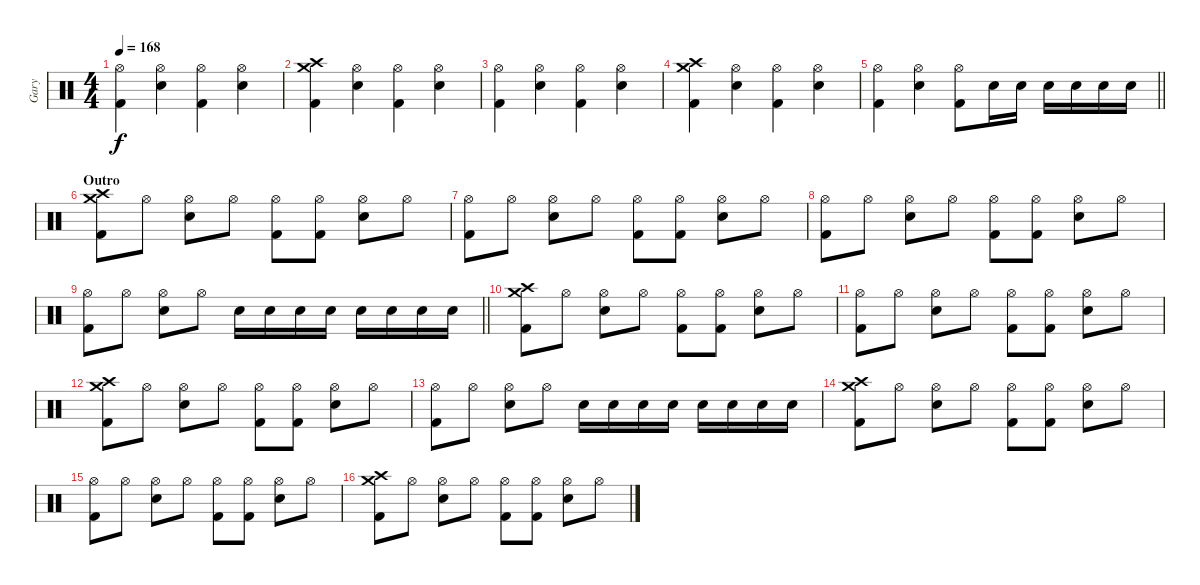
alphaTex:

\track ("Gary" "Gary") {instrument percussion}
\staff {score}
\articulation defaults
\ts (4 4)
\tempo 168
\clef neutral
\ks c
("Hi-Hat (open)" "Kick (hit) 2").4{dy f} ("Hi-Hat (open)" "Electric Snare (hit)").4 ("Hi-Hat (open)" "Kick (hit) 2").4 ("Hi-Hat (open)" "Electric Snare (hit)").4 |
("Crash medium (hit)" "Crash high (hit)" "Kick (hit) 2").4 ("Hi-Hat (open)" "Electric Snare (hit)").4 ("Hi-Hat (open)" "Kick (hit) 2").4 ("Hi-Hat (open)" "Electric Snare (hit)").4 |
("Hi-Hat (open)" "Kick (hit) 2").4 ("Hi-Hat (open)" "Electric Snare (hit)").4 ("Hi-Hat (open)" "Kick (hit) 2").4 ("Hi-Hat (open)" "Electric Snare (hit)").4 |
("Crash medium (hit)" "Crash high (hit)" "Kick (hit) 2").4 ("Hi-Hat (open)" "Electric Snare (hit)").4 ("Hi-Hat (open)" "Kick (hit) 2").4 ("Hi-Hat (open)" "Electric Snare (hit)").4 |
\barLineRight lightlight
("Hi-Hat (open)" "Kick (hit) 2").4 ("Hi-Hat (open)" "Electric Snare (hit)").4 ("Hi-Hat (open)" "Kick (hit) 2").8 "Electric Snare (hit)".16 "Electric Snare (hit)".16 "Electric Snare (hit)".16 "Electric Snare (hit)".16 "Electric Snare (hit)".16 "Electric Snare (hit)".16 |
\section ("" "Outro")
("Crash high (hit)" "Crash medium (hit)" "Kick (hit) 2").8 "Hi-Hat (open)".8 ("Hi-Hat (open)" "Electric Snare (hit)").8 "Hi-Hat (open)".8 ("Hi-Hat (open)" "Kick (hit) 2").8 ("Hi-Hat (open)" "Kick (hit) 2").8 ("Hi-Hat (open)" "Electric Snare (hit)").8 "Hi-Hat (open)".8 |
("Hi-Hat (open)" "Kick (hit) 2").8 "Hi-Hat (open)".8 ("Hi-Hat (open)" "Electric Snare (hit)").8 "Hi-Hat (open)".8 ("Hi-Hat (open)" "Kick (hit) 2").8 ("Hi-Hat (open)" "Kick (hit) 2").8 ("Hi-Hat (open)" "Electric Snare (hit)").8 "Hi-Hat (open)".8 |
("Hi-Hat (open)" "Kick (hit) 2").8 "Hi-Hat (open)".8 ("Hi-Hat (open)" "Electric Snare (hit)").8 "Hi-Hat (open)".8 ("Hi-Hat (open)" "Kick (hit) 2").8 ("Hi-Hat (open)" "Kick (hit) 2").8 ("Hi-Hat (open)" "Electric Snare (hit)").8 "Hi-Hat (open)".8 |
\barLineRight lightlight
("Hi-Hat (open)" "Kick (hit) 2").8 "Hi-Hat (open)".8 ("Hi-Hat (open)" "Electric Snare (hit)").8 "Hi-Hat (open)".8 "Electric Snare (hit)".16 "Electric Snare (hit)".16 "Electric Snare (hit)".16 "Electric Snare (hit)".16 "Electric Snare (hit)".16 "Electric Snare (hit)".16 "Electric Snare (hit)".16 "Electric Snare (hit)".16 |
("Crash high (hit)" "Crash medium (hit)" "Kick (hit) 2").8 "Hi-Hat (open)".8 ("Hi-Hat (open)" "Electric Snare (hit)").8 "Hi-Hat (open)".8 ("Hi-Hat (open)" "Kick (hit) 2").8 ("Hi-Hat (open)" "Kick (hit) 2").8 ("Hi-Hat (open)" "Electric Snare (hit)").8 "Hi-Hat (open)".8 |
("Hi-Hat (open)" "Kick (hit) 2").8 "Hi-Hat (open)".8 ("Hi-Hat (open)" "Electric Snare (hit)").8 "Hi-Hat (open)".8 ("Hi-Hat (open)" "Kick (hit) 2").8 ("Hi-Hat (open)" "Kick (hit) 2").8 ("Hi-Hat (open)" "Electric Snare (hit)").8 "Hi-Hat (open)".8 |
("Crash high (hit)" "Crash medium (hit)" "Kick (hit) 2").8 "Hi-Hat (open)".8 ("Hi-Hat (open)" "Electric Snare (hit)").8 "Hi-Hat (open)".8 ("Hi-Hat (open)" "Kick (hit) 2").8 ("Hi-Hat (open)" "Kick (hit) 2").8 ("Hi-Hat (open)" "Electric Snare (hit)").8 "Hi-Hat (open)".8 |
("Hi-Hat (open)" "Kick (hit) 2").8 "Hi-Hat (open)".8 ("Hi-Hat (open)" "Electric Snare (hit)").8 "Hi-Hat (open)".8 "Electric Snare (hit)".16 "Electric Snare (hit)".16 "Electric Snare (hit)".16 "Electric Snare (hit)".16 "Electric Snare (hit)".16 "Electric Snare (hit)".16 "Electric Snare (hit)".16 "Electric Snare (hit)".16 |
("Crash high (hit)" "Crash medium (hit)" "Kick (hit) 2").8 "Hi-Hat (open)".8 ("Hi-Hat (open)" "Electric Snare (hit)").8 "Hi-Hat (open)".8 ("Hi-Hat (open)" "Kick (hit) 2").8 ("Hi-Hat (open)" "Kick (hit) 2").8 ("Hi-Hat (open)" "Electric Snare (hit)").8 "Hi-Hat (open)".8 |
("Hi-Hat (open)" "Kick (hit) 2").8 "Hi-Hat (open)".8 ("Hi-Hat (open)" "Electric Snare (hit)").8 "Hi-Hat (open)".8 ("Hi-Hat (open)" "Kick (hit) 2").8 ("Hi-Hat (open)" "Kick (hit) 2").8 ("Hi-Hat (open)" "Electric Snare (hit)").8 "Hi-Hat (open)".8 |
("Crash high (hit)" "Crash medium (hit)" "Kick (hit) 2").8 "Hi-Hat (open)".8 ("Hi-Hat (open)" "Electric Snare (hit)").8 "Hi-Hat (open)".8 ("Hi-Hat (open)" "Kick (hit) 2").8 ("Hi-Hat (open)" "Kick (hit) 2").8 ("Hi-Hat (open)" "Electric Snare (hit)").8 "Hi-Hat (open)".8
